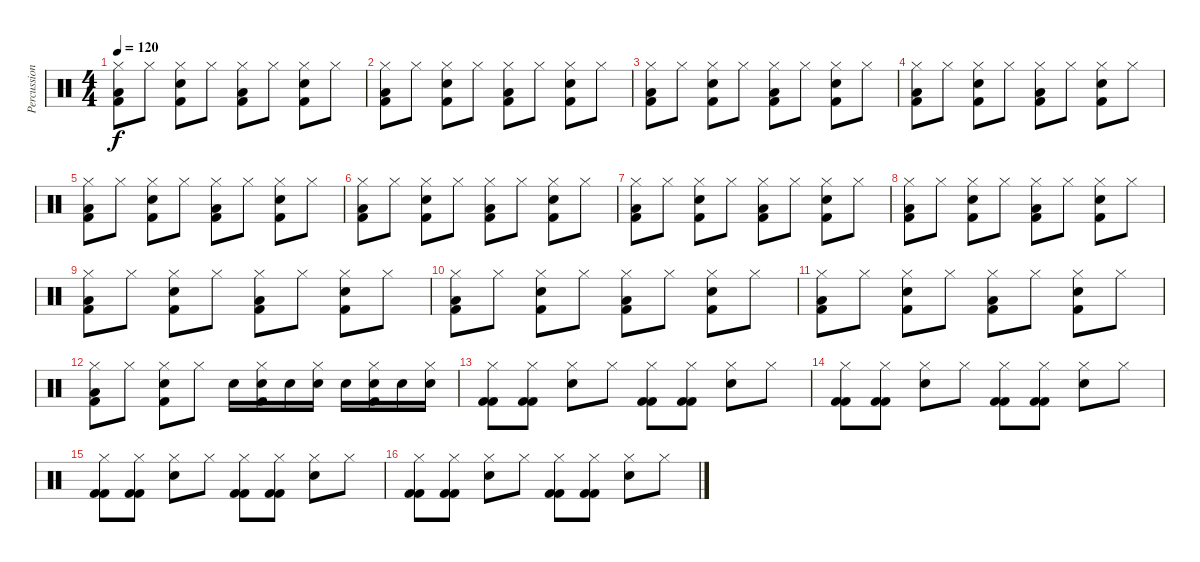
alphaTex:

\track ("Percussions" "Percussion") {instrument percussion}
\staff {score}
\articulation defaults
\ts (4 4)
\tempo 120
\clef neutral
\ks c
("Hi-Hat (closed)" "Low Floor Tom (hit)" "Kick (hit) 2").8{dy f} "Hi-Hat (closed)".8 ("Hi-Hat (closed)" "Snare (hit) 2" "Kick (hit) 2").8 "Hi-Hat (closed)".8 ("Hi-Hat (closed)" "Low Floor Tom (hit)" "Kick (hit) 2").8 "Hi-Hat (closed)".8 ("Hi-Hat (closed)" "Snare (hit) 2" "Kick (hit) 2").8 "Hi-Hat (closed)".8 |
("Hi-Hat (closed)" "Low Floor Tom (hit)" "Kick (hit) 2").8 "Hi-Hat (closed)".8 ("Hi-Hat (closed)" "Snare (hit) 2" "Kick (hit) 2").8 "Hi-Hat (closed)".8 ("Hi-Hat (closed)" "Low Floor Tom (hit)" "Kick (hit) 2").8 "Hi-Hat (closed)".8 ("Hi-Hat (closed)" "Snare (hit) 2" "Kick (hit) 2").8 "Hi-Hat (closed)".8 |
("Hi-Hat (closed)" "Low Floor Tom (hit)" "Kick (hit) 2").8 "Hi-Hat (closed)".8 ("Hi-Hat (closed)" "Snare (hit) 2" "Kick (hit) 2").8 "Hi-Hat (closed)".8 ("Hi-Hat (closed)" "Low Floor Tom (hit)" "Kick (hit) 2").8 "Hi-Hat (closed)".8 ("Hi-Hat (closed)" "Snare (hit) 2" "Kick (hit) 2").8 "Hi-Hat (closed)".8 |
("Hi-Hat (closed)" "Low Floor Tom (hit)" "Kick (hit) 2").8 "Hi-Hat (closed)".8 ("Hi-Hat (closed)" "Snare (hit) 2" "Kick (hit) 2").8 "Hi-Hat (closed)".8 ("Hi-Hat (closed)" "Low Floor Tom (hit)" "Kick (hit) 2").8 "Hi-Hat (closed)".8 ("Hi-Hat (closed)" "Snare (hit) 2" "Kick (hit) 2").8 "Hi-Hat (closed)".8 |
("Hi-Hat (closed)" "Low Floor Tom (hit)" "Kick (hit) 2").8 "Hi-Hat (closed)".8 ("Hi-Hat (closed)" "Snare (hit) 2" "Kick (hit) 2").8 "Hi-Hat (closed)".8 ("Hi-Hat (closed)" "Low Floor Tom (hit)" "Kick (hit) 2").8 "Hi-Hat (closed)".8 ("Hi-Hat (closed)" "Snare (hit) 2" "Kick (hit) 2").8 "Hi-Hat (closed)".8 |
("Hi-Hat (closed)" "Low Floor Tom (hit)" "Kick (hit) 2").8 "Hi-Hat (closed)".8 ("Hi-Hat (closed)" "Snare (hit) 2" "Kick (hit) 2").8 "Hi-Hat (closed)".8 ("Hi-Hat (closed)" "Low Floor Tom (hit)" "Kick (hit) 2").8 "Hi-Hat (closed)".8 ("Hi-Hat (closed)" "Snare (hit) 2" "Kick (hit) 2").8 "Hi-Hat (closed)".8 |
("Hi-Hat (closed)" "Low Floor Tom (hit)" "Kick (hit) 2").8 "Hi-Hat (closed)".8 ("Hi-Hat (closed)" "Snare (hit) 2" "Kick (hit) 2").8 "Hi-Hat (closed)".8 ("Hi-Hat (closed)" "Low Floor Tom (hit)" "Kick (hit) 2").8 "Hi-Hat (closed)".8 ("Hi-Hat (closed)" "Snare (hit) 2" "Kick (hit) 2").8 "Hi-Hat (closed)".8 |
("Hi-Hat (closed)" "Low Floor Tom (hit)" "Kick (hit) 2").8 "Hi-Hat (closed)".8 ("Hi-Hat (closed)" "Snare (hit) 2" "Kick (hit) 2").8 "Hi-Hat (closed)".8 ("Hi-Hat (closed)" "Low Floor Tom (hit)" "Kick (hit) 2").8 "Hi-Hat (closed)".8 ("Hi-Hat (closed)" "Snare (hit) 2" "Kick (hit) 2").8 "Hi-Hat (closed)".8 |
("Hi-Hat (closed)" "Low Floor Tom (hit)" "Kick (hit) 2").8 "Hi-Hat (closed)".8 ("Hi-Hat (closed)" "Snare (hit) 2" "Kick (hit) 2").8 "Hi-Hat (closed)".8 ("Hi-Hat (closed)" "Low Floor Tom (hit)" "Kick (hit) 2").8 "Hi-Hat (closed)".8 ("Hi-Hat (closed)" "Snare (hit) 2" "Kick (hit) 2").8 "Hi-Hat (closed)".8 |
("Hi-Hat (closed)" "Low Floor Tom (hit)" "Kick (hit) 2").8 "Hi-Hat (closed)".8 ("Hi-Hat (closed)" "Snare (hit) 2" "Kick (hit) 2").8 "Hi-Hat (closed)".8 ("Hi-Hat (closed)" "Low Floor Tom (hit)" "Kick (hit) 2").8 "Hi-Hat (closed)".8 ("Hi-Hat (closed)" "Snare (hit) 2" "Kick (hit) 2").8 "Hi-Hat (closed)".8 |
("Hi-Hat (closed)" "Low Floor Tom (hit)" "Kick (hit) 2").8 "Hi-Hat (closed)".8 ("Hi-Hat (closed)" "Snare (hit) 2" "Kick (hit) 2").8 "Hi-Hat (closed)".8 ("Hi-Hat (closed)" "Low Floor Tom (hit)" "Kick (hit) 2").8 "Hi-Hat (closed)".8 ("Hi-Hat (closed)" "Snare (hit) 2" "Kick (hit) 2").8 "Hi-Hat (closed)".8 |
("Hi-Hat (closed)" "Low Floor Tom (hit)" "Kick (hit) 2").8 "Hi-Hat (closed)".8 ("Hi-Hat (closed)" "Snare (hit) 2" "Kick (hit) 2").8 "Hi-Hat (closed)".8 "Snare (hit) 2".16 ("Hi-Hat (closed)" "Snare (hit) 2" "Kick (hit) 2").16 "Snare (hit) 2".16 ("Hi-Hat (closed)" "Snare (hit) 2").16 "Snare (hit) 2".16 ("Hi-Hat (closed)" "Snare (hit) 2" "Kick (hit) 2").16 "Snare (hit) 2".16 ("Hi-Hat (closed)" "Snare (hit) 2").16 |
("Hi-Hat (closed)" "Kick (hit) 2" "Kick (hit) 2").8 ("Hi-Hat (closed)" "Kick (hit) 2" "Kick (hit) 2").8 ("Hi-Hat (closed)" "Snare (hit) 2").8 "Hi-Hat (closed)".8 ("Hi-Hat (closed)" "Kick (hit) 2" "Kick (hit) 2").8 ("Hi-Hat (closed)" "Kick (hit) 2" "Kick (hit) 2").8 ("Hi-Hat (closed)" "Snare (hit) 2").8 "Hi-Hat (closed)".8 |
("Hi-Hat (closed)" "Kick (hit) 2" "Kick (hit) 2").8 ("Hi-Hat (closed)" "Kick (hit) 2" "Kick (hit) 2").8 ("Hi-Hat (closed)" "Snare (hit) 2").8 "Hi-Hat (closed)".8 ("Hi-Hat (closed)" "Kick (hit) 2" "Kick (hit) 2").8 ("Hi-Hat (closed)" "Kick (hit) 2" "Kick (hit) 2").8 ("Hi-Hat (closed)" "Snare (hit) 2").8 "Hi-Hat (closed)".8 |
("Hi-Hat (closed)" "Kick (hit) 2" "Kick (hit) 2").8 ("Hi-Hat (closed)" "Kick (hit) 2" "Kick (hit) 2").8 ("Hi-Hat (closed)" "Snare (hit) 2").8 "Hi-Hat (closed)".8 ("Hi-Hat (closed)" "Kick (hit) 2" "Kick (hit) 2").8 ("Hi-Hat (closed)" "Kick (hit) 2" "Kick (hit) 2").8 ("Hi-Hat (closed)" "Snare (hit) 2").8 "Hi-Hat (closed)".8 |
("Hi-Hat (closed)" "Kick (hit) 2" "Kick (hit) 2").8 ("Hi-Hat (closed)" "Kick (hit) 2" "Kick (hit) 2").8 ("Hi-Hat (closed)" "Snare (hit) 2").8 "Hi-Hat (closed)".8 ("Hi-Hat (closed)" "Kick (hit) 2" "Kick (hit) 2").8 ("Hi-Hat (closed)" "Kick (hit) 2" "Kick (hit) 2").8 ("Hi-Hat (closed)" "Snare (hit) 2").8 "Hi-Hat (closed)".8
